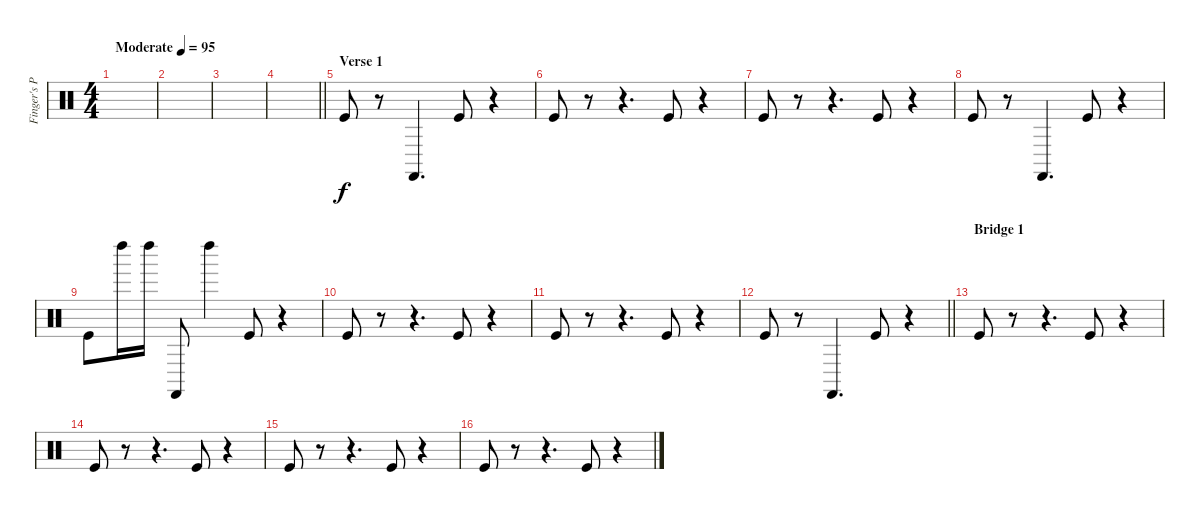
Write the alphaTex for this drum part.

\track ("Finger's Percussive" "Finger's P") {instrument percussion}
\staff {score}
\articulation defaults
\ts (4 4)
\tempo (95 "Moderate")
\clef neutral
\ks c
|
|
|
\barLineRight lightlight
|
\section ("" "Verse 1")
"Kick (hit)".8 r.8 "Castanets (hit)".4{d} "Kick (hit)".8 r.4 |
"Kick (hit)".8 r.8 r.4{d} "Kick (hit)".8 r.4 |
"Kick (hit)".8 r.8 r.4{d} "Kick (hit)".8 r.4 |
"Kick (hit)".8 r.8 "Castanets (hit)".4{d} "Kick (hit)".8 r.4 |
"Kick (hit)".8 "Left Maraca (hit)".16 "Left Maraca (hit)".16 "Castanets (hit)".8 "Left Maraca (hit)".4 "Kick (hit)".8 r.4 |
"Kick (hit)".8 r.8 r.4{d} "Kick (hit)".8 r.4 |
"Kick (hit)".8 r.8 r.4{d} "Kick (hit)".8 r.4 |
\barLineRight lightlight "Kick (hit)".8
r.8 "Castanets (hit)".4{d} "Kick (hit)".8 r.4 |
\section ("" "Bridge 1")
"Kick (hit)".8 r.8 r.4{d} "Kick (hit)".8 r.4 |
"Kick (hit)".8 r.8 r.4{d} "Kick (hit)".8 r.4 |
"Kick (hit)".8 r.8 r.4{d} "Kick (hit)".8 r.4 |
"Kick (hit)".8 r.8 r.4{d} "Kick (hit)".8 r.4
